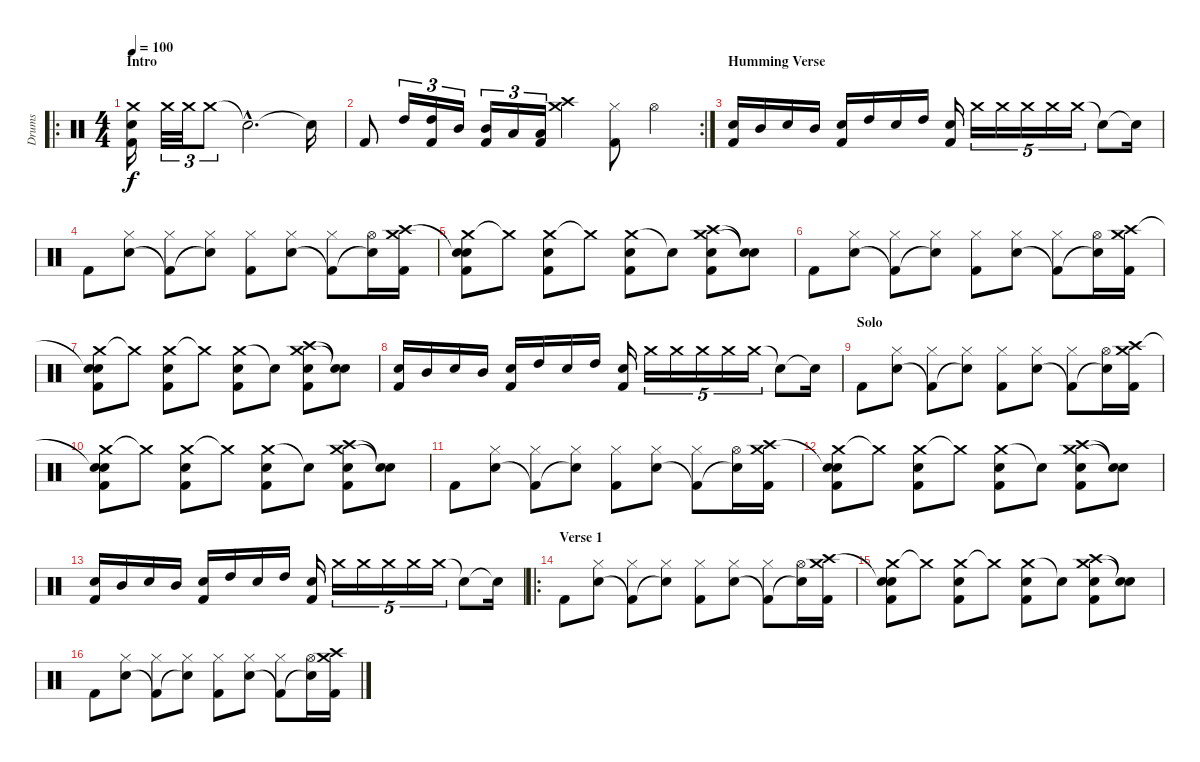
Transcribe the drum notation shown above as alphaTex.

\track ("Drums" "Drums") {instrument percussion}
\staff {score}
\articulation defaults
\ro
\ts (4 4)
\section ("" "Intro")
\tempo 100
\clef neutral
\ks c
("Crash medium (hit)" "Snare (hit) 2" "Kick (hit) 2").16{dy f} "Crash medium (hit)".32{tu (3 2)} "Crash medium (hit)".32{tu (3 2)} "Crash medium (hit)".8{tu (3 2)} "Snare (hit)"{hac t}.2{d} "Snare (hit)"{t}.16 |
\rc 2 "Kick (hit) 2".8 "High Tom (hit)".16{tu (3 2)}
("High Tom (hit)" "Kick (hit) 2").16{tu (3 2)} "Mid Tom (hit)".16{tu (3 2)} ("Mid Tom (hit)" "Kick (hit) 2").16{tu (3 2)} "Low Floor Tom (hit)".16{tu (3 2)} ("Low Floor Tom (hit)" "Kick (hit) 2").16{tu (3 2)} ("Crash medium (hit)" "Crash high (hit)").4 ("Hi-Hat (closed)" "Kick (hit) 2").8 "Hi-Hat (open)".4 |
\section ("" "Humming Verse")
("Snare (hit) 2" "Kick (hit) 2").16 "Mid Tom (hit)".16 "Snare (hit) 2".16 "Mid Tom (hit)".16 ("Snare (hit) 2" "Kick (hit) 2").16 "High Tom (hit)".16 "Snare (hit) 2".16 "High Tom (hit)".16 ("Snare (hit) 2" "Kick (hit) 2").16 "Crash medium (hit)".16{tu (5 4)} "Crash medium (hit)".16{tu (5 4)} "Crash medium (hit)".16{tu (5 4)} "Crash medium (hit)".16{tu (5 4)} "Crash medium (hit)".16{tu (5 4)} "Snare (hit)"{t}.8 "Snare (hit)"{t}.16 |
"Kick (hit) 2".8 ("Hi-Hat (closed)" "Snare (hit) 2").8 ("Hi-Hat (closed)" "Kick (hit) 2"{t}).8 ("Hi-Hat (closed)" "Snare (hit) 2"{t}).8 ("Hi-Hat (closed)" "Kick (hit) 2").8 ("Hi-Hat (closed)" "Snare (hit) 2").8 ("Hi-Hat (closed)" "Kick (hit) 2"{t}).8 ("Hi-Hat (open)" "Snare (hit) 2"{t}).16 ("Crash medium (hit)" "Crash high (hit)" "Kick (hit) 2").16 |
("Crash medium (hit)" "Snare (hit)"{t} "Snare (hit) 2" "Kick (hit) 2").8 "Crash medium (hit)"{t}.8 ("Crash medium (hit)" "Snare (hit) 2" "Kick (hit) 2").8 "Crash medium (hit)"{t}.8 ("Crash medium (hit)" "Snare (hit) 2" "Kick (hit) 2").8 "Snare (hit)"{t}.8 ("Crash medium (hit)" "Crash high (hit)" "Snare (hit) 2" "Kick (hit) 2").8 ("Snare (hit)"{t} "Snare (hit)"{t}).8 |
"Kick (hit) 2".8 ("Hi-Hat (closed)" "Snare (hit) 2").8 ("Hi-Hat (closed)" "Kick (hit) 2"{t}).8 ("Hi-Hat (closed)" "Snare (hit) 2"{t}).8 ("Hi-Hat (closed)" "Kick (hit) 2").8 ("Hi-Hat (closed)" "Snare (hit) 2").8 ("Hi-Hat (closed)" "Kick (hit) 2"{t}).8 ("Hi-Hat (open)" "Snare (hit) 2"{t}).16 ("Crash medium (hit)" "Crash high (hit)" "Kick (hit) 2").16 |
("Crash medium (hit)" "Snare (hit)"{t} "Snare (hit) 2" "Kick (hit) 2").8 "Crash medium (hit)"{t}.8 ("Crash medium (hit)" "Snare (hit) 2" "Kick (hit) 2").8 "Crash medium (hit)"{t}.8 ("Crash medium (hit)" "Snare (hit) 2" "Kick (hit) 2").8 "Snare (hit)"{t}.8 ("Crash medium (hit)" "Crash high (hit)" "Snare (hit) 2" "Kick (hit) 2").8 ("Snare (hit)"{t} "Snare (hit)"{t}).8 |
("Snare (hit) 2" "Kick (hit) 2").16 "Mid Tom (hit)".16 "Snare (hit) 2".16 "Mid Tom (hit)".16 ("Snare (hit) 2" "Kick (hit) 2").16 "High Tom (hit)".16 "Snare (hit) 2".16 "High Tom (hit)".16 ("Snare (hit) 2" "Kick (hit) 2").16 "Crash medium (hit)".16{tu (5 4)} "Crash medium (hit)".16{tu (5 4)} "Crash medium (hit)".16{tu (5 4)} "Crash medium (hit)".16{tu (5 4)} "Crash medium (hit)".16{tu (5 4)} "Snare (hit)"{t}.8 "Snare (hit)"{t}.16 |
\section ("" "Solo")
"Kick (hit) 2".8 ("Hi-Hat (closed)" "Snare (hit) 2").8 ("Hi-Hat (closed)" "Kick (hit) 2"{t}).8 ("Hi-Hat (closed)" "Snare (hit) 2"{t}).8 ("Hi-Hat (closed)" "Kick (hit) 2").8 ("Hi-Hat (closed)" "Snare (hit) 2").8 ("Hi-Hat (closed)" "Kick (hit) 2"{t}).8 ("Hi-Hat (open)" "Snare (hit) 2"{t}).16 ("Crash medium (hit)" "Crash high (hit)" "Kick (hit) 2").16 |
("Crash medium (hit)" "Snare (hit)"{t} "Snare (hit) 2" "Kick (hit) 2").8 "Crash medium (hit)"{t}.8 ("Crash medium (hit)" "Snare (hit) 2" "Kick (hit) 2").8 "Crash medium (hit)"{t}.8 ("Crash medium (hit)" "Snare (hit) 2" "Kick (hit) 2").8 "Snare (hit)"{t}.8 ("Crash medium (hit)" "Crash high (hit)" "Snare (hit) 2" "Kick (hit) 2").8 ("Snare (hit)"{t} "Snare (hit)"{t}).8 |
"Kick (hit) 2".8 ("Hi-Hat (closed)" "Snare (hit) 2").8 ("Hi-Hat (closed)" "Kick (hit) 2"{t}).8 ("Hi-Hat (closed)" "Snare (hit) 2"{t}).8 ("Hi-Hat (closed)" "Kick (hit) 2").8 ("Hi-Hat (closed)" "Snare (hit) 2").8 ("Hi-Hat (closed)" "Kick (hit) 2"{t}).8 ("Hi-Hat (open)" "Snare (hit) 2"{t}).16 ("Crash medium (hit)" "Crash high (hit)" "Kick (hit) 2").16 |
("Crash medium (hit)" "Snare (hit)"{t} "Snare (hit) 2" "Kick (hit) 2").8 "Crash medium (hit)"{t}.8 ("Crash medium (hit)" "Snare (hit) 2" "Kick (hit) 2").8 "Crash medium (hit)"{t}.8 ("Crash medium (hit)" "Snare (hit) 2" "Kick (hit) 2").8 "Snare (hit)"{t}.8 ("Crash medium (hit)" "Crash high (hit)" "Snare (hit) 2" "Kick (hit) 2").8 ("Snare (hit)"{t} "Snare (hit)"{t}).8 |
("Snare (hit) 2" "Kick (hit) 2").16 "Mid Tom (hit)".16 "Snare (hit) 2".16 "Mid Tom (hit)".16 ("Snare (hit) 2" "Kick (hit) 2").16 "High Tom (hit)".16 "Snare (hit) 2".16 "High Tom (hit)".16 ("Snare (hit) 2" "Kick (hit) 2").16 "Crash medium (hit)".16{tu (5 4)} "Crash medium (hit)".16{tu (5 4)} "Crash medium (hit)".16{tu (5 4)} "Crash medium (hit)".16{tu (5 4)} "Crash medium (hit)".16{tu (5 4)} "Snare (hit)"{t}.8 "Snare (hit)"{t}.16 |
\ro
\section ("" "Verse 1")
"Kick (hit) 2".8 ("Hi-Hat (closed)" "Snare (hit) 2").8 ("Hi-Hat (closed)" "Kick (hit) 2"{t}).8 ("Hi-Hat (closed)" "Snare (hit) 2"{t}).8 ("Hi-Hat (closed)" "Kick (hit) 2").8 ("Hi-Hat (closed)" "Snare (hit) 2").8 ("Hi-Hat (closed)" "Kick (hit) 2"{t}).8 ("Hi-Hat (open)" "Snare (hit) 2"{t}).16 ("Crash medium (hit)" "Crash high (hit)" "Kick (hit) 2").16 |
("Crash medium (hit)" "Snare (hit)"{t} "Snare (hit) 2" "Kick (hit) 2").8 "Crash medium (hit)"{t}.8 ("Crash medium (hit)" "Snare (hit) 2" "Kick (hit) 2").8 "Crash medium (hit)"{t}.8 ("Crash medium (hit)" "Snare (hit) 2" "Kick (hit) 2").8 "Snare (hit)"{t}.8 ("Crash medium (hit)" "Crash high (hit)" "Snare (hit) 2" "Kick (hit) 2").8 ("Snare (hit)"{t} "Snare (hit)"{t}).8 |
"Kick (hit) 2".8 ("Hi-Hat (closed)" "Snare (hit) 2").8 ("Hi-Hat (closed)" "Kick (hit) 2"{t}).8 ("Hi-Hat (closed)" "Snare (hit) 2"{t}).8 ("Hi-Hat (closed)" "Kick (hit) 2").8 ("Hi-Hat (closed)" "Snare (hit) 2").8 ("Hi-Hat (closed)" "Kick (hit) 2"{t}).8 ("Hi-Hat (open)" "Snare (hit) 2"{t}).16 ("Crash medium (hit)" "Crash high (hit)" "Kick (hit) 2").16
